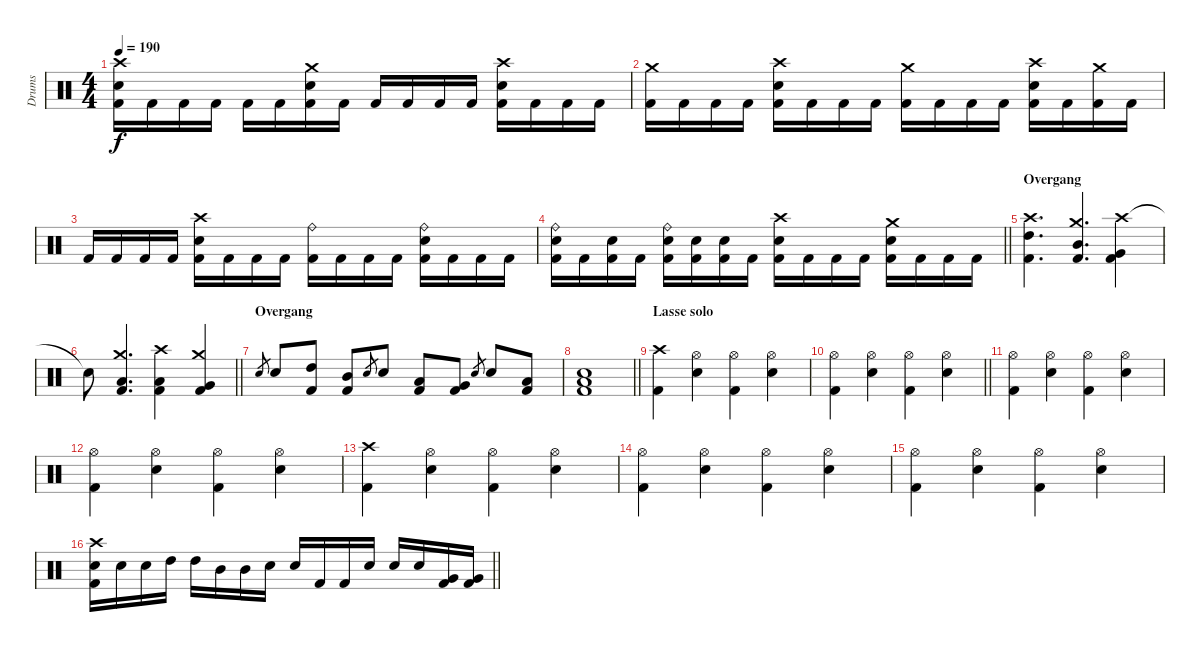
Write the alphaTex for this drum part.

\track ("Drums" "Drums") {instrument percussion}
\staff {score}
\articulation defaults
\ts (4 4)
\tempo 190
\clef neutral
\ks c
("Crash high (hit)" "Snare (hit) 2" "Kick (hit) 2").16{dy f} "Kick (hit) 2".16 "Kick (hit) 2".16 "Kick (hit) 2".16 "Kick (hit) 2".16 "Kick (hit) 2".16 ("Crash medium (hit)" "Snare (hit) 2" "Kick (hit) 2").16 "Kick (hit) 2".16 "Kick (hit) 2".16 "Kick (hit) 2".16 "Kick (hit) 2".16 "Kick (hit) 2".16 ("Crash high (hit)" "Snare (hit) 2" "Kick (hit) 2").16 "Kick (hit) 2".16 "Kick (hit) 2".16 "Kick (hit) 2".16 |
("Crash medium (hit)" "Kick (hit) 2").16 "Kick (hit) 2".16 "Kick (hit) 2".16 "Kick (hit) 2".16 ("Crash high (hit)" "Snare (hit) 2" "Kick (hit) 2").16 "Kick (hit) 2".16 "Kick (hit) 2".16 "Kick (hit) 2".16 ("Crash medium (hit)" "Kick (hit) 2").16 "Kick (hit) 2".16 "Kick (hit) 2".16 "Kick (hit) 2".16 ("Crash high (hit)" "Snare (hit) 2" "Kick (hit) 2").16 "Kick (hit) 2".16 ("Crash medium (hit)" "Kick (hit) 2").16 "Kick (hit) 2".16 |
"Kick (hit) 2".16 "Kick (hit) 2".16 "Kick (hit) 2".16 "Kick (hit) 2".16 ("Crash high (hit)" "Snare (hit) 2" "Kick (hit) 2").16 "Kick (hit) 2".16 "Kick (hit) 2".16 "Kick (hit) 2".16 ("Ride (bell)" "Kick (hit) 2").16 "Kick (hit) 2".16 "Kick (hit) 2".16 "Kick (hit) 2".16 ("Ride (bell)" "Snare (hit) 2" "Kick (hit) 2").16 "Kick (hit) 2".16 "Kick (hit) 2".16 "Kick (hit) 2".16 |
\barLineRight lightlight
("Ride (bell)" "Snare (hit) 2" "Kick (hit) 2").16 "Kick (hit) 2".16 ("Snare (hit) 2" "Kick (hit) 2").16 "Kick (hit) 2".16 ("Ride (bell)" "Snare (hit) 2" "Kick (hit) 2").16 ("Snare (hit) 2" "Kick (hit) 2").16 ("Snare (hit) 2" "Kick (hit) 2").16 "Kick (hit) 2".16 ("Crash high (hit)" "Snare (hit) 2" "Kick (hit) 2").16 "Kick (hit) 2".16 "Kick (hit) 2".16 "Kick (hit) 2".16 ("Crash medium (hit)" "Snare (hit) 2" "Kick (hit) 2").16 "Kick (hit) 2".16 "Kick (hit) 2".16 "Kick (hit) 2".16 |
\section ("" "Overgang")
("Crash high (hit)" "High Tom (hit)" "Kick (hit) 2").4{d} ("Crash medium (hit)" "Mid Tom (hit)" "Kick (hit) 2").4{d} ("Crash high (hit)" "Very Low Tom (hit)" "Kick (hit) 2").4 |
\barLineRight lightlight "Snare (hit)"{t}.8
("Crash medium (hit)" "Low Tom (hit)" "Kick (hit) 2").4{d} ("Crash high (hit)" "Low Floor Tom (hit)" "Kick (hit) 2").4 ("Crash medium (hit)" "Very Low Tom (hit)" "Kick (hit) 2").4 |
\section ("" "Overgang")
"Snare (hit) 2".8{gr} "Snare (hit) 2".8 ("High Tom (hit)" "Kick (hit) 2").8 ("Mid Tom (hit)" "Kick (hit) 2").8 "Snare (hit) 2".8{gr} "Snare (hit) 2".8 ("Low Tom (hit)" "Kick (hit) 2").8 ("Very Low Tom (hit)" "Kick (hit) 2").8 "Snare (hit) 2".8{gr} "Snare (hit) 2".8 ("Low Floor Tom (hit)" "Kick (hit) 2").8 |
\barLineRight lightlight
("Low Floor Tom (hit)" "Snare (hit) 2" "Kick (hit) 2").1 |
\section ("" "Lasse solo")
("Crash high (hit)" "Kick (hit) 2").4 ("Hi-Hat (open)" "Snare (hit) 2").4 ("Hi-Hat (open)" "Kick (hit) 2").4 ("Hi-Hat (open)" "Snare (hit) 2").4 |
\barLineRight lightlight
("Hi-Hat (open)" "Kick (hit) 2").4 ("Hi-Hat (open)" "Snare (hit) 2").4 ("Hi-Hat (open)" "Kick (hit) 2").4 ("Hi-Hat (open)" "Snare (hit) 2").4 |
("Hi-Hat (open)" "Kick (hit) 2").4 ("Hi-Hat (open)" "Snare (hit) 2").4 ("Hi-Hat (open)" "Kick (hit) 2").4 ("Hi-Hat (open)" "Snare (hit) 2").4 |
("Hi-Hat (open)" "Kick (hit) 2").4 ("Hi-Hat (open)" "Snare (hit) 2").4 ("Hi-Hat (open)" "Kick (hit) 2").4 ("Hi-Hat (open)" "Snare (hit) 2").4 |
("Crash high (hit)" "Kick (hit) 2").4 ("Hi-Hat (open)" "Snare (hit) 2").4 ("Hi-Hat (open)" "Kick (hit) 2").4 ("Hi-Hat (open)" "Snare (hit) 2").4 |
("Hi-Hat (open)" "Kick (hit) 2").4 ("Hi-Hat (open)" "Snare (hit) 2").4 ("Hi-Hat (open)" "Kick (hit) 2").4 ("Hi-Hat (open)" "Snare (hit) 2").4 |
("Hi-Hat (open)" "Kick (hit) 2").4 ("Hi-Hat (open)" "Snare (hit) 2").4 ("Hi-Hat (open)" "Kick (hit) 2").4 ("Hi-Hat (open)" "Snare (hit) 2").4 |
\barLineRight lightlight
("Crash high (hit)" "Snare (hit) 2" "Kick (hit) 2").16 "Snare (hit) 2".16 "Snare (hit) 2".16 "High Tom (hit)".16 "High Tom (hit)".16 "Mid Tom (hit)".16 "Mid Tom (hit)".16 "Snare (hit) 2".16 "Snare (hit) 2".16 "Kick (hit) 2".16 "Kick (hit) 2".16 "Snare (hit) 2".16 "Snare (hit) 2".16 "Snare (hit) 2".16 ("Very Low Tom (hit)" "Kick (hit) 2").16 ("Very Low Tom (hit)" "Kick (hit) 2").16
